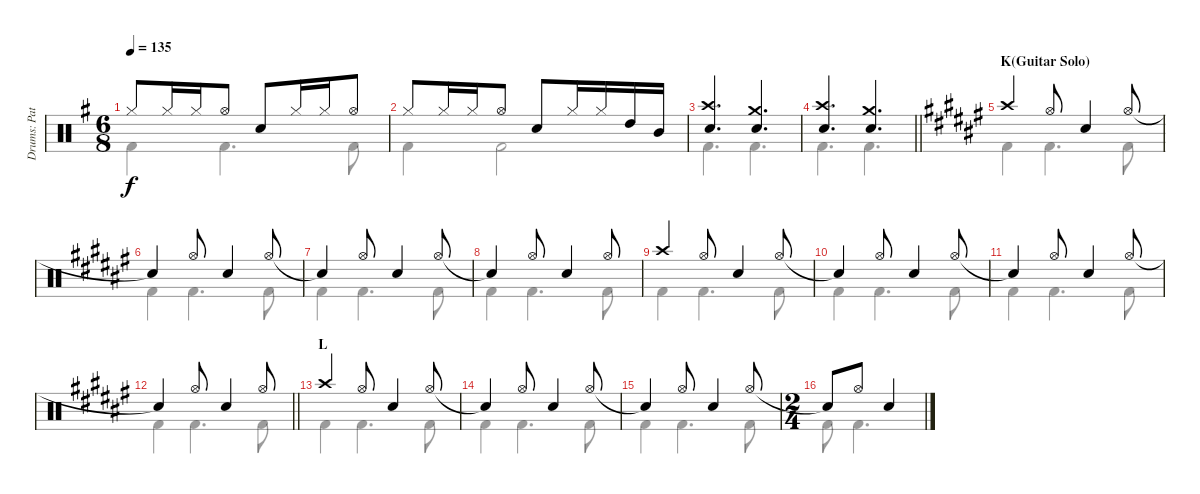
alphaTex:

\track ("Drums: Pat" "Drums: Pat") {instrument percussion}
\staff {score}
\articulation defaults
\voice
\ts (6 8)
\tempo 135
\clef neutral
\ks g "Hi-Hat (closed)".8{dy f} "Hi-Hat (closed)".16 "Hi-Hat (closed)".16 "Hi-Hat (open)".8 "Snare (hit) 2".8 "Hi-Hat (closed)".16 "Hi-Hat (closed)".16 "Hi-Hat (open)".8
|
"Hi-Hat (closed)".8 "Hi-Hat (closed)".16 "Hi-Hat (closed)".16 "Hi-Hat (open)".8 "Snare (hit) 2".8 "Hi-Hat (closed)".16 "Hi-Hat (closed)".16 "High Tom (hit)".16 "Mid Tom (hit)".16 |
("Crash high (hit)"{acc b} "Snare (hit) 2").4{d} ("Crash medium (hit)" "Snare (hit) 2").4{d} |
\barLineRight lightlight
("Crash high (hit)"{acc b} "Snare (hit) 2").4{d} ("Crash medium (hit)" "Snare (hit) 2").4{d} |
\section ("" "K(Guitar Solo)")
\ks f# "Crash high (hit)".4 "Hi-Hat (open)".8 "Snare (hit) 2".4 "Hi-Hat (open)".8
|
"Snare (hit)"{t}.4 "Hi-Hat (open)".8 "Snare (hit) 2".4 "Hi-Hat (open)".8 |
"Snare (hit)"{t}.4 "Hi-Hat (open)".8 "Snare (hit) 2".4 "Hi-Hat (open)".8 |
"Snare (hit)"{t}.4 "Hi-Hat (open)".8 "Snare (hit) 2".4 "Hi-Hat (open)".8 |
"Crash high (hit)".4 "Hi-Hat (open)".8 "Snare (hit) 2".4 "Hi-Hat (open)".8 |
"Snare (hit)"{t}.4 "Hi-Hat (open)".8 "Snare (hit) 2".4 "Hi-Hat (open)".8 |
"Snare (hit)"{t}.4 "Hi-Hat (open)".8 "Snare (hit) 2".4 "Hi-Hat (open)".8 |
\barLineRight lightlight "Snare (hit)"{t}.4 "Hi-Hat (open)".8 "Snare (hit) 2".4 "Hi-Hat (open)".8
|
\section ("" "L")
"Crash high (hit)".4 "Hi-Hat (open)".8 "Snare (hit) 2".4 "Hi-Hat (open)".8 |
"Snare (hit)"{t}.4 "Hi-Hat (open)".8 "Snare (hit) 2".4 "Hi-Hat (open)".8 |
"Snare (hit)"{t}.4 "Hi-Hat (open)".8 "Snare (hit) 2".4 "Hi-Hat (open)".8 |
\ts (2 4)
"Snare (hit)"{t}.8 "Hi-Hat (open)".8 "Snare (hit) 2".4
\voice
\clef neutral
\ottava regular
\simile none
\ks g "Kick (hit) 2".4{dy f} "Kick (hit) 2".4{d} "Kick (hit) 2".8
|
"Kick (hit) 2".4 "Kick (hit) 2".2 |
"Kick (hit) 2".4{d} "Kick (hit) 2".4{d} |
\barLineRight lightlight "Kick (hit) 2".4{d} "Kick (hit) 2".4{d}
|
\ks f# "Kick (hit) 2".4 "Kick (hit) 2".4{d} "Kick (hit) 2".8
|
"Kick (hit) 2".4 "Kick (hit) 2".4{d} "Kick (hit) 2".8 |
"Kick (hit) 2".4 "Kick (hit) 2".4{d} "Kick (hit) 2".8 |
"Kick (hit) 2".4 "Kick (hit) 2".4{d} "Kick (hit) 2".8 |
"Kick (hit) 2".4 "Kick (hit) 2".4{d} "Kick (hit) 2".8 |
"Kick (hit) 2".4 "Kick (hit) 2".4{d} "Kick (hit) 2".8 |
"Kick (hit) 2".4 "Kick (hit) 2".4{d} "Kick (hit) 2".8 |
\barLineRight lightlight "Kick (hit) 2".4 "Kick (hit) 2".4{d} "Kick (hit) 2".8
|
"Kick (hit) 2".4 "Kick (hit) 2".4{d} "Kick (hit) 2".8 |
"Kick (hit) 2".4 "Kick (hit) 2".4{d} "Kick (hit) 2".8 |
"Kick (hit) 2".4 "Kick (hit) 2".4{d} "Kick (hit) 2".8 |
"Kick (hit) 2".8 "Kick (hit) 2".4{d}
